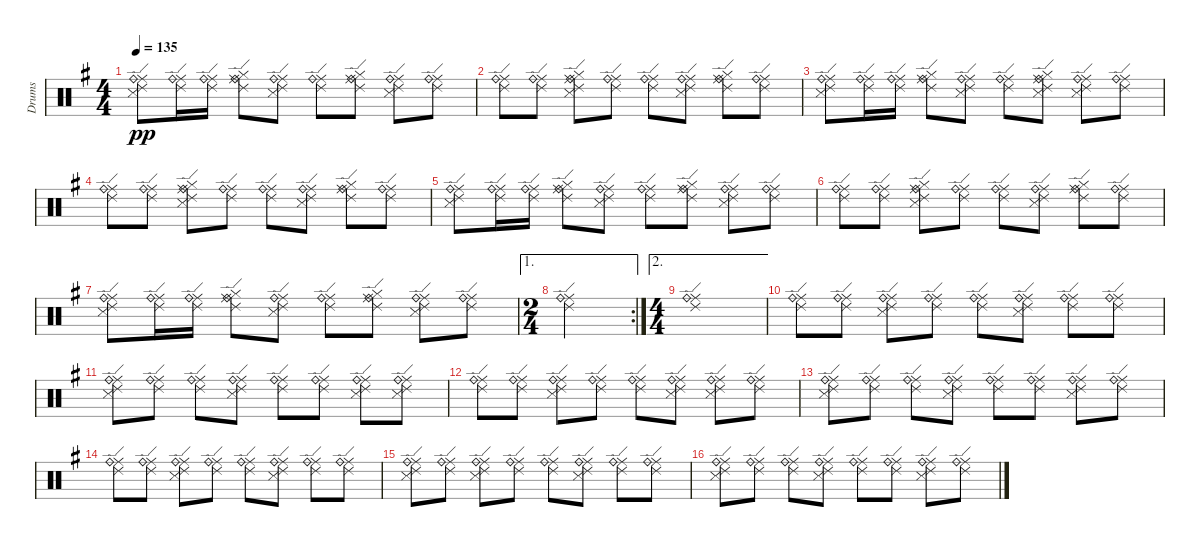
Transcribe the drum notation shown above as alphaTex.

\track ("Drums" "Drums") {instrument percussion}
\staff {score}
\articulation defaults
\ts (4 4)
\tempo 135
\clef neutral
\ks eminor
("Ride (middle)" "Snare (side stick) 3" "Ride (edge) 2" "Ride (bell)").8{dy pp} ("Ride (middle)" "Ride (edge) 2" "Ride (bell)").16 ("Ride (middle)" "Ride (edge) 2" "Ride (bell)").16 ("Ride (middle)" "Hi-Hat (closed)" "Ride (edge) 2" "Ride (bell)").8 ("Ride (middle)" "Snare (side stick) 3" "Ride (edge) 2" "Ride (bell)").8 ("Ride (middle)" "Ride (edge) 2" "Ride (bell)").8 ("Ride (middle)" "Hi-Hat (closed)" "Ride (edge) 2" "Ride (bell)").8 ("Ride (middle)" "Snare (side stick) 3" "Ride (edge) 2" "Ride (bell)").8 ("Ride (middle)" "Ride (edge) 2" "Ride (bell)").8 |
("Ride (middle)" "Ride (edge) 2" "Ride (bell)").8 ("Ride (middle)" "Ride (edge) 2" "Ride (bell)").8 ("Ride (middle)" "Hi-Hat (closed)" "Snare (side stick) 3" "Ride (edge) 2" "Ride (bell)").8 ("Ride (middle)" "Ride (edge) 2" "Ride (bell)").8 ("Ride (middle)" "Ride (edge) 2" "Ride (bell)").8 ("Ride (middle)" "Snare (side stick) 3" "Ride (edge) 2" "Ride (bell)").8 ("Ride (middle)" "Hi-Hat (closed)" "Ride (edge) 2" "Ride (bell)").8 ("Ride (middle)" "Ride (edge) 2" "Ride (bell)").8 |
("Ride (middle)" "Snare (side stick) 3" "Ride (edge) 2" "Ride (bell)").8 ("Ride (middle)" "Ride (edge) 2" "Ride (bell)").16 ("Ride (middle)" "Ride (edge) 2" "Ride (bell)").16 ("Ride (middle)" "Hi-Hat (closed)" "Ride (edge) 2" "Ride (bell)").8 ("Ride (middle)" "Snare (side stick) 3" "Ride (edge) 2" "Ride (bell)").8 ("Ride (middle)" "Ride (edge) 2" "Ride (bell)").8 ("Ride (middle)" "Hi-Hat (closed)" "Snare (side stick) 3" "Ride (edge) 2" "Ride (bell)").8 ("Ride (middle)" "Snare (side stick) 3" "Ride (edge) 2" "Ride (bell)").8 ("Ride (middle)" "Ride (edge) 2" "Ride (bell)").8 |
("Ride (middle)" "Ride (edge) 2" "Ride (bell)").8 ("Ride (middle)" "Ride (edge) 2" "Ride (bell)").8 ("Ride (middle)" "Hi-Hat (closed)" "Snare (side stick) 3" "Ride (edge) 2" "Ride (bell)").8 ("Ride (middle)" "Ride (edge) 2" "Ride (bell)").8 ("Ride (middle)" "Ride (edge) 2" "Ride (bell)").8 ("Ride (middle)" "Snare (side stick) 3" "Ride (edge) 2" "Ride (bell)").8 ("Ride (middle)" "Hi-Hat (closed)" "Ride (edge) 2" "Ride (bell)").8 ("Ride (middle)" "Ride (edge) 2" "Ride (bell)").8 |
("Ride (middle)" "Snare (side stick) 3" "Ride (edge) 2" "Ride (bell)").8 ("Ride (middle)" "Ride (edge) 2" "Ride (bell)").16 ("Ride (middle)" "Ride (edge) 2" "Ride (bell)").16 ("Ride (middle)" "Hi-Hat (closed)" "Ride (edge) 2" "Ride (bell)").8 ("Ride (middle)" "Snare (side stick) 3" "Ride (edge) 2" "Ride (bell)").8 ("Ride (middle)" "Ride (edge) 2" "Ride (bell)").8 ("Ride (middle)" "Hi-Hat (closed)" "Ride (edge) 2" "Ride (bell)").8 ("Ride (middle)" "Snare (side stick) 3" "Ride (edge) 2" "Ride (bell)").8 ("Ride (middle)" "Ride (edge) 2" "Ride (bell)").8 |
("Ride (middle)" "Ride (edge) 2" "Ride (bell)").8 ("Ride (middle)" "Ride (edge) 2" "Ride (bell)").8 ("Ride (middle)" "Hi-Hat (closed)" "Snare (side stick) 3" "Ride (edge) 2" "Ride (bell)").8 ("Ride (middle)" "Ride (edge) 2" "Ride (bell)").8 ("Ride (middle)" "Ride (edge) 2" "Ride (bell)").8 ("Ride (middle)" "Snare (side stick) 3" "Ride (edge) 2" "Ride (bell)").8 ("Ride (middle)" "Hi-Hat (closed)" "Ride (edge) 2" "Ride (bell)").8 ("Ride (middle)" "Ride (edge) 2" "Ride (bell)").8 |
("Ride (middle)" "Snare (side stick) 3" "Ride (edge) 2" "Ride (bell)").8 ("Ride (middle)" "Ride (edge) 2" "Ride (bell)").16 ("Ride (middle)" "Ride (edge) 2" "Ride (bell)").16 ("Ride (middle)" "Hi-Hat (closed)" "Ride (edge) 2" "Ride (bell)").8 ("Ride (middle)" "Snare (side stick) 3" "Ride (edge) 2" "Ride (bell)").8 ("Ride (middle)" "Ride (edge) 2" "Ride (bell)").8 ("Ride (middle)" "Hi-Hat (closed)" "Ride (edge) 2" "Ride (bell)").8 ("Ride (middle)" "Snare (side stick) 3" "Ride (edge) 2" "Ride (bell)").8 ("Ride (middle)" "Ride (edge) 2" "Ride (bell)").8 |
\ae 1
\rc 2
\ts (2 4)
("Ride (middle)" "Ride (edge) 2" "Ride (bell)").2 |
\ae 2
\ts (4 4)
("Ride (middle)" "Ride (edge) 2" "Ride (bell)").1 |
("Ride (middle)" "Ride (edge) 2" "Ride (bell)").8 ("Ride (middle)" "Ride (edge) 2" "Ride (bell)").8 ("Ride (middle)" "Snare (side stick) 3" "Ride (edge) 2" "Ride (bell)").8 ("Ride (middle)" "Ride (edge) 2" "Ride (bell)").8 ("Ride (middle)" "Ride (edge) 2" "Ride (bell)").8 ("Ride (middle)" "Snare (side stick) 3" "Ride (edge) 2" "Ride (bell)").8 ("Ride (middle)" "Ride (edge) 2" "Ride (bell)").8 ("Ride (middle)" "Ride (edge) 2" "Ride (bell)").8 |
("Ride (middle)" "Snare (side stick) 3" "Ride (edge) 2" "Ride (bell)").8 ("Ride (middle)" "Ride (edge) 2" "Ride (bell)").8 ("Ride (middle)" "Ride (edge) 2" "Ride (bell)").8 ("Ride (middle)" "Snare (side stick) 3" "Ride (edge) 2" "Ride (bell)").8 ("Ride (middle)" "Ride (edge) 2" "Ride (bell)").8 ("Ride (middle)" "Ride (edge) 2" "Ride (bell)").8 ("Ride (middle)" "Snare (side stick) 3" "Ride (edge) 2" "Ride (bell)").8 ("Ride (middle)" "Snare (side stick) 3" "Ride (edge) 2" "Ride (bell)").8 |
("Ride (middle)" "Ride (edge) 2" "Ride (bell)").8 ("Ride (middle)" "Ride (edge) 2" "Ride (bell)").8 ("Ride (middle)" "Snare (side stick) 3" "Ride (edge) 2" "Ride (bell)").8 ("Ride (middle)" "Ride (edge) 2" "Ride (bell)").8 ("Ride (middle)" "Ride (edge) 2" "Ride (bell)").8 ("Ride (middle)" "Snare (side stick) 3" "Ride (edge) 2" "Ride (bell)").8 ("Ride (middle)" "Snare (side stick) 3" "Ride (edge) 2" "Ride (bell)").8 ("Ride (middle)" "Ride (edge) 2" "Ride (bell)").8 |
("Ride (middle)" "Snare (side stick) 3" "Ride (edge) 2" "Ride (bell)").8 ("Ride (middle)" "Ride (edge) 2" "Ride (bell)").8 ("Ride (middle)" "Ride (edge) 2" "Ride (bell)").8 ("Ride (middle)" "Snare (side stick) 3" "Ride (edge) 2" "Ride (bell)").8 ("Ride (middle)" "Ride (edge) 2" "Ride (bell)").8 ("Ride (middle)" "Ride (edge) 2" "Ride (bell)").8 ("Ride (middle)" "Snare (side stick) 3" "Ride (edge) 2" "Ride (bell)").8 ("Ride (middle)" "Ride (edge) 2" "Ride (bell)").8 |
("Ride (middle)" "Ride (edge) 2" "Ride (bell)").8 ("Ride (middle)" "Ride (edge) 2" "Ride (bell)").8 ("Ride (middle)" "Snare (side stick) 3" "Ride (edge) 2" "Ride (bell)").8 ("Ride (middle)" "Ride (edge) 2" "Ride (bell)").8 ("Ride (middle)" "Ride (edge) 2" "Ride (bell)").8 ("Ride (middle)" "Snare (side stick) 3" "Ride (edge) 2" "Ride (bell)").8 ("Ride (middle)" "Ride (edge) 2" "Ride (bell)").8 ("Ride (middle)" "Ride (edge) 2" "Ride (bell)").8 |
("Ride (middle)" "Snare (side stick) 3" "Ride (edge) 2" "Ride (bell)").8 ("Ride (middle)" "Ride (edge) 2" "Ride (bell)").8 ("Ride (middle)" "Snare (side stick) 3" "Ride (edge) 2" "Ride (bell)").8 ("Ride (middle)" "Ride (edge) 2" "Ride (bell)").8 ("Ride (middle)" "Ride (edge) 2" "Ride (bell)").8 ("Ride (middle)" "Snare (side stick) 3" "Ride (edge) 2" "Ride (bell)").8 ("Ride (middle)" "Ride (edge) 2" "Ride (bell)").8 ("Ride (middle)" "Ride (edge) 2" "Ride (bell)").8 |
("Ride (middle)" "Snare (side stick) 3" "Ride (edge) 2" "Ride (bell)").8 ("Ride (middle)" "Ride (edge) 2" "Ride (bell)").8 ("Ride (middle)" "Ride (edge) 2" "Ride (bell)").8 ("Ride (middle)" "Snare (side stick) 3" "Ride (edge) 2" "Ride (bell)").8 ("Ride (middle)" "Ride (edge) 2" "Ride (bell)").8 ("Ride (middle)" "Ride (edge) 2" "Ride (bell)").8 ("Ride (middle)" "Snare (side stick) 3" "Ride (edge) 2" "Ride (bell)").8 ("Ride (middle)" "Ride (edge) 2" "Ride (bell)").8
